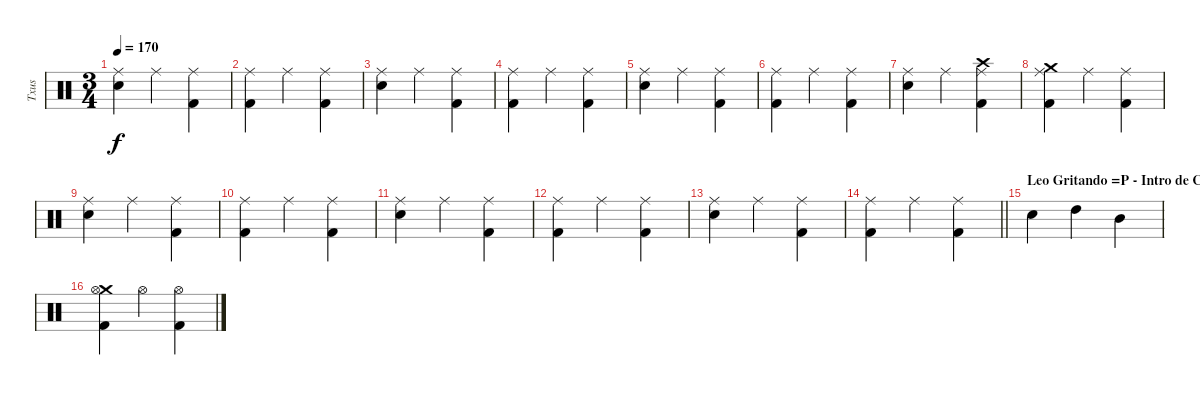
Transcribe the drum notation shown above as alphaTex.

\track ("Txus" "Txus") {instrument percussion}
\staff {score}
\articulation defaults
\ts (3 4)
\tempo 170
\clef neutral
\ks c
("Ride (middle)" "Electric Snare (hit)").4{dy f} "Ride (middle)".4 ("Ride (middle)" "Kick (hit) 2").4 |
("Ride (middle)" "Kick (hit) 2").4 "Ride (middle)".4 ("Ride (middle)" "Kick (hit) 2").4 |
("Ride (middle)" "Electric Snare (hit)").4 "Ride (middle)".4 ("Ride (middle)" "Kick (hit) 2").4 |
("Ride (middle)" "Kick (hit) 2").4 "Ride (middle)".4 ("Ride (middle)" "Kick (hit) 2").4 |
("Ride (middle)" "Electric Snare (hit)").4 "Ride (middle)".4 ("Ride (middle)" "Kick (hit) 2").4 |
("Ride (middle)" "Kick (hit) 2").4 "Ride (middle)".4 ("Ride (middle)" "Kick (hit) 2").4 |
("Ride (middle)" "Electric Snare (hit)").4 "Ride (middle)".4 ("Crash high (hit)" "Ride (middle)" "Kick (hit) 2").4 |
("Crash medium (hit)" "Ride (middle)" "Kick (hit) 2").4 "Ride (middle)".4 ("Ride (middle)" "Kick (hit) 2").4 |
("Ride (middle)" "Electric Snare (hit)").4 "Ride (middle)".4 ("Ride (middle)" "Kick (hit) 2").4 |
("Ride (middle)" "Kick (hit) 2").4 "Ride (middle)".4 ("Ride (middle)" "Kick (hit) 2").4 |
("Ride (middle)" "Electric Snare (hit)").4 "Ride (middle)".4 ("Ride (middle)" "Kick (hit) 2").4 |
("Ride (middle)" "Kick (hit) 2").4 "Ride (middle)".4 ("Ride (middle)" "Kick (hit) 2").4 |
("Ride (middle)" "Electric Snare (hit)").4 "Ride (middle)".4 ("Ride (middle)" "Kick (hit) 2").4 |
\barLineRight lightlight
("Ride (middle)" "Kick (hit) 2").4 "Ride (middle)".4 ("Ride (middle)" "Kick (hit) 2").4 |
\section ("" "Leo Gritando =P - Intro de Carlitos")
"Electric Snare (hit)".4 "High Tom (hit)".4 "Mid Tom (hit)".4 |
("Crash medium (hit)" "Hi-Hat (open)" "Kick (hit) 2").4 "Hi-Hat (open)".4 ("Hi-Hat (open)" "Kick (hit) 2").4
